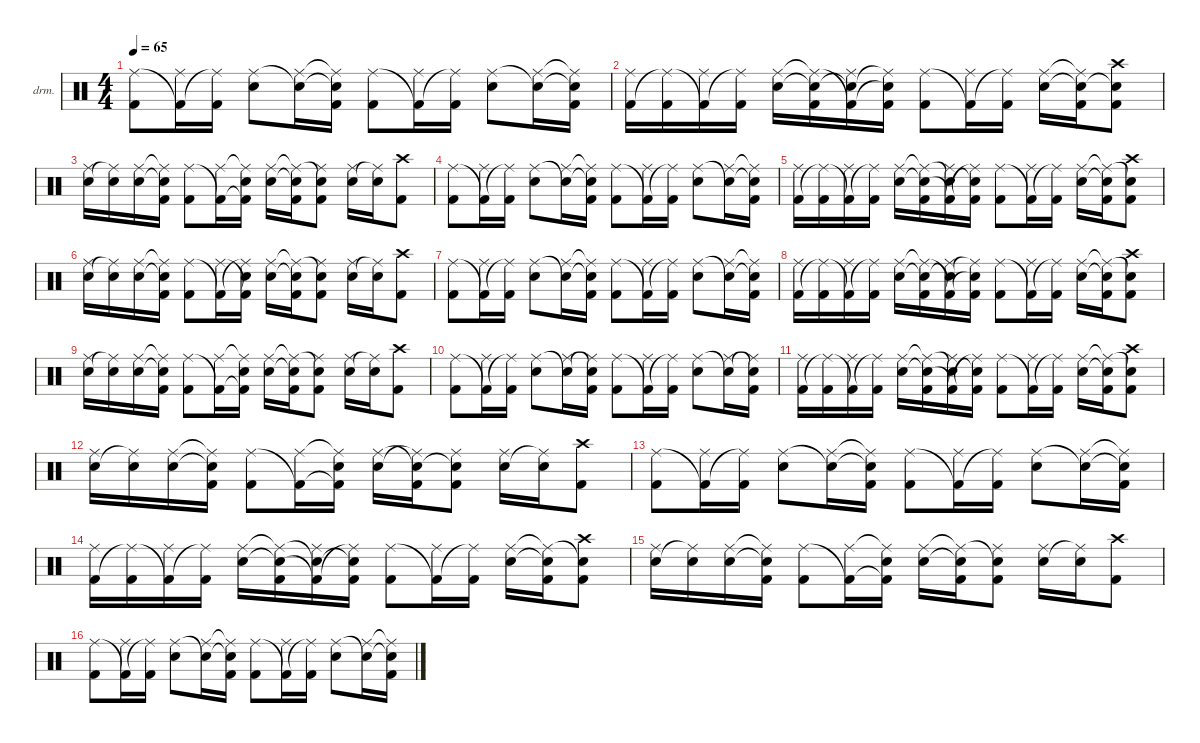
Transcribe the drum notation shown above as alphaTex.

\hideDynamics
\bracketExtendMode nobrackets
\firstSystemTrackNameOrientation horizontal
\otherSystemsTrackNameOrientation horizontal
\track ("Drums" "drm.") {instrument percussion}
\staff {score}
\articulation defaults
\ts (4 4)
\tempo 65
\clef neutral
\ks aminor
("Ride (middle)"{acc #} "Kick (hit) 2").8{dy ff beam Down} ("Kick (hit) 2"{t} "Ride (middle)"{acc #}).16{beam Down} ("Ride (middle)"{t acc #} "Kick (hit) 2").16{beam Down} ("Ride (middle)"{acc #} "Snare (hit) 2").8{beam Down} ("Snare (hit) 2"{t} "Ride (middle)"{acc #}).16{beam Down} ("Snare (hit) 2"{t} "Ride (middle)"{t acc #} "Kick (hit) 2").16{beam Down} ("Ride (middle)"{acc #} "Kick (hit) 2").8{beam Down} ("Kick (hit) 2"{t} "Ride (middle)"{acc #}).16{beam Down} ("Ride (middle)"{t acc #} "Kick (hit) 2").16{beam Down} ("Ride (middle)"{acc #} "Snare (hit) 2").8{beam Down} ("Snare (hit) 2"{t} "Ride (middle)"{acc #}).16{beam Down} ("Snare (hit) 2"{t} "Ride (middle)"{t acc #} "Kick (hit) 2").16{beam Down} |
("Kick (hit) 2" "Ride (middle)"{acc #}).16{beam Down} ("Ride (middle)"{t acc #} "Kick (hit) 2").16{beam Down} ("Kick (hit) 2"{t} "Ride (middle)"{acc #}).16{beam Down} ("Ride (middle)"{t acc #} "Kick (hit) 2").16{beam Down} ("Ride (middle)"{acc #} "Snare (hit) 2").16{beam Down} ("Ride (middle)"{t acc #} "Snare (hit) 2"{t} "Kick (hit) 2").16{beam Down} ("Kick (hit) 2"{t} "Snare (hit) 2"{t} "Ride (middle)"{acc #}).16{beam Down} ("Snare (hit) 2"{t} "Ride (middle)"{t acc #} "Kick (hit) 2").16{beam Down} ("Ride (middle)"{acc #} "Kick (hit) 2").8{beam Down} ("Kick (hit) 2"{t} "Ride (middle)"{acc #}).16{beam Down} ("Ride (middle)"{t acc #} "Kick (hit) 2").16{beam Down} ("Ride (middle)"{acc #} "Snare (hit) 2").16{beam Down} ("Ride (middle)"{t acc #} "Snare (hit) 2"{t} "Kick (hit) 2").16{beam Down} ("Kick (hit) 2" "Snare (hit) 2"{t} "Crash high (hit)"{acc #}).8{beam Down} |
("Snare (hit) 2" "Ride (middle)"{acc #}).16{beam Down} ("Ride (middle)"{t acc #} "Snare (hit) 2").16{beam Down} ("Snare (hit) 2" "Ride (middle)"{acc #}).16{beam Down} ("Snare (hit) 2"{t} "Ride (middle)"{t acc #} "Kick (hit) 2").16{beam Down} ("Ride (middle)"{acc #} "Kick (hit) 2").8{beam Down} ("Kick (hit) 2"{t} "Ride (middle)"{acc #}).16{beam Down} ("Kick (hit) 2"{t} "Ride (middle)"{t acc #} "Snare (hit) 2").16{beam Down} ("Ride (middle)"{acc #} "Snare (hit) 2").16{beam Down} ("Ride (middle)"{t acc #} "Snare (hit) 2"{t} "Kick (hit) 2").16{beam Down} ("Snare (hit) 2"{t} "Kick (hit) 2" "Ride (middle)"{acc #}).8{beam Down} ("Snare (hit) 2" "Ride (middle)"{acc #}).16{beam Down} ("Ride (middle)"{t acc #} "Snare (hit) 2").16{beam Down} ("Kick (hit) 2" "Crash high (hit)"{acc #}).8{beam Down} |
("Ride (middle)"{acc #} "Kick (hit) 2").8{beam Down} ("Kick (hit) 2"{t} "Ride (middle)"{acc #}).16{beam Down} ("Ride (middle)"{t acc #} "Kick (hit) 2").16{beam Down} ("Ride (middle)"{acc #} "Snare (hit) 2").8{beam Down} ("Snare (hit) 2"{t} "Ride (middle)"{acc #}).16{beam Down} ("Snare (hit) 2"{t} "Ride (middle)"{t acc #} "Kick (hit) 2").16{beam Down} ("Ride (middle)"{acc #} "Kick (hit) 2").8{beam Down} ("Kick (hit) 2"{t} "Ride (middle)"{acc #}).16{beam Down} ("Ride (middle)"{t acc #} "Kick (hit) 2").16{beam Down} ("Ride (middle)"{acc #} "Snare (hit) 2").8{beam Down} ("Snare (hit) 2"{t} "Ride (middle)"{acc #}).16{beam Down} ("Snare (hit) 2"{t} "Ride (middle)"{t acc #} "Kick (hit) 2").16{beam Down} |
("Kick (hit) 2" "Ride (middle)"{acc #}).16{beam Down} ("Ride (middle)"{t acc #} "Kick (hit) 2").16{beam Down} ("Kick (hit) 2"{t} "Ride (middle)"{acc #}).16{beam Down} ("Ride (middle)"{t acc #} "Kick (hit) 2").16{beam Down} ("Ride (middle)"{acc #} "Snare (hit) 2").16{beam Down} ("Ride (middle)"{t acc #} "Snare (hit) 2"{t} "Kick (hit) 2").16{beam Down} ("Snare (hit) 2"{t} "Kick (hit) 2"{t} "Ride (middle)"{acc #}).16{beam Down} ("Snare (hit) 2"{t} "Ride (middle)"{t acc #} "Kick (hit) 2").16{beam Down} ("Ride (middle)"{acc #} "Kick (hit) 2").8{beam Down} ("Kick (hit) 2"{t} "Ride (middle)"{acc #}).16{beam Down} ("Ride (middle)"{t acc #} "Kick (hit) 2").16{beam Down} ("Ride (middle)"{acc #} "Snare (hit) 2").16{beam Down} ("Ride (middle)"{t acc #} "Snare (hit) 2"{t} "Kick (hit) 2").16{beam Down} ("Snare (hit) 2"{t} "Kick (hit) 2" "Crash high (hit)"{acc #}).8{beam Down} |
("Snare (hit) 2" "Ride (middle)"{acc #}).16{beam Down} ("Ride (middle)"{t acc #} "Snare (hit) 2").16{beam Down} ("Snare (hit) 2" "Ride (middle)"{acc #}).16{beam Down} ("Snare (hit) 2"{t} "Ride (middle)"{t acc #} "Kick (hit) 2").16{beam Down} ("Ride (middle)"{acc #} "Kick (hit) 2").8{beam Down} ("Kick (hit) 2"{t} "Ride (middle)"{acc #}).16{beam Down} ("Ride (middle)"{t acc #} "Kick (hit) 2"{t} "Snare (hit) 2").16{beam Down} ("Ride (middle)"{acc #} "Snare (hit) 2").16{beam Down} ("Ride (middle)"{t acc #} "Snare (hit) 2"{t} "Kick (hit) 2").16{beam Down} ("Snare (hit) 2"{t} "Kick (hit) 2" "Ride (middle)"{acc #}).8{beam Down} ("Snare (hit) 2" "Ride (middle)"{acc #}).16{beam Down} ("Ride (middle)"{t acc #} "Snare (hit) 2").16{beam Down} ("Kick (hit) 2" "Crash high (hit)"{acc #}).8{beam Down} |
("Ride (middle)"{acc #} "Kick (hit) 2").8{beam Down} ("Kick (hit) 2"{t} "Ride (middle)"{acc #}).16{beam Down} ("Ride (middle)"{t acc #} "Kick (hit) 2").16{beam Down} ("Ride (middle)"{acc #} "Snare (hit) 2").8{beam Down} ("Snare (hit) 2"{t} "Ride (middle)"{acc #}).16{beam Down} ("Snare (hit) 2"{t} "Ride (middle)"{t acc #} "Kick (hit) 2").16{beam Down} ("Ride (middle)"{acc #} "Kick (hit) 2").8{beam Down} ("Kick (hit) 2"{t} "Ride (middle)"{acc #}).16{beam Down} ("Ride (middle)"{t acc #} "Kick (hit) 2").16{beam Down} ("Ride (middle)"{acc #} "Snare (hit) 2").8{beam Down} ("Snare (hit) 2"{t} "Ride (middle)"{acc #}).16{beam Down} ("Snare (hit) 2"{t} "Ride (middle)"{t acc #} "Kick (hit) 2").16{beam Down} |
("Kick (hit) 2" "Ride (middle)"{acc #}).16{beam Down} ("Ride (middle)"{t acc #} "Kick (hit) 2").16{beam Down} ("Kick (hit) 2"{t} "Ride (middle)"{acc #}).16{beam Down} ("Ride (middle)"{t acc #} "Kick (hit) 2").16{beam Down} ("Ride (middle)"{acc #} "Snare (hit) 2").16{beam Down} ("Ride (middle)"{t acc #} "Snare (hit) 2"{t} "Kick (hit) 2").16{beam Down} ("Kick (hit) 2"{t} "Snare (hit) 2"{t} "Ride (middle)"{acc #}).16{beam Down} ("Snare (hit) 2"{t} "Ride (middle)"{t acc #} "Kick (hit) 2").16{beam Down} ("Ride (middle)"{acc #} "Kick (hit) 2").8{beam Down} ("Kick (hit) 2"{t} "Ride (middle)"{acc #}).16{beam Down} ("Ride (middle)"{t acc #} "Kick (hit) 2").16{beam Down} ("Ride (middle)"{acc #} "Snare (hit) 2").16{beam Down} ("Ride (middle)"{t acc #} "Snare (hit) 2"{t} "Kick (hit) 2").16{beam Down} ("Snare (hit) 2"{t} "Kick (hit) 2" "Crash high (hit)"{acc #}).8{beam Down} |
("Snare (hit) 2" "Ride (middle)"{acc #}).16{beam Down} ("Ride (middle)"{t acc #} "Snare (hit) 2").16{beam Down} ("Snare (hit) 2" "Ride (middle)"{acc #}).16{beam Down} ("Snare (hit) 2"{t} "Ride (middle)"{t acc #} "Kick (hit) 2").16{beam Down} ("Ride (middle)"{acc #} "Kick (hit) 2").8{beam Down} ("Kick (hit) 2"{t} "Ride (middle)"{acc #}).16{beam Down} ("Kick (hit) 2"{t} "Ride (middle)"{t acc #} "Snare (hit) 2").16{beam Down} ("Ride (middle)"{acc #} "Snare (hit) 2").16{beam Down} ("Ride (middle)"{t acc #} "Snare (hit) 2"{t} "Kick (hit) 2").16{beam Down} ("Snare (hit) 2"{t} "Kick (hit) 2" "Ride (middle)"{acc #}).8{beam Down} ("Snare (hit) 2" "Ride (middle)"{acc #}).16{beam Down} ("Ride (middle)"{t acc #} "Snare (hit) 2").16{beam Down} ("Kick (hit) 2" "Crash high (hit)"{acc #}).8{beam Down} |
("Ride (middle)"{acc #} "Kick (hit) 2").8{beam Down} ("Kick (hit) 2"{t} "Ride (middle)"{acc #}).16{beam Down} ("Ride (middle)"{t acc #} "Kick (hit) 2").16{beam Down} ("Ride (middle)"{acc #} "Snare (hit) 2").8{beam Down} ("Snare (hit) 2"{t} "Ride (middle)"{acc #}).16{beam Down} ("Ride (middle)"{t acc #} "Snare (hit) 2"{t} "Kick (hit) 2").16{beam Down} ("Ride (middle)"{acc #} "Kick (hit) 2").8{beam Down} ("Kick (hit) 2"{t} "Ride (middle)"{acc #}).16{beam Down} ("Ride (middle)"{t acc #} "Kick (hit) 2").16{beam Down} ("Ride (middle)"{acc #} "Snare (hit) 2").8{beam Down} ("Snare (hit) 2"{t} "Ride (middle)"{acc #}).16{beam Down} ("Ride (middle)"{t acc #} "Snare (hit) 2"{t} "Kick (hit) 2").16{beam Down} |
("Kick (hit) 2" "Ride (middle)"{acc #}).16{beam Down} ("Ride (middle)"{t acc #} "Kick (hit) 2").16{beam Down} ("Kick (hit) 2"{t} "Ride (middle)"{acc #}).16{beam Down} ("Ride (middle)"{t acc #} "Kick (hit) 2").16{beam Down} ("Ride (middle)"{acc #} "Snare (hit) 2").16{beam Down} ("Ride (middle)"{t acc #} "Snare (hit) 2"{t} "Kick (hit) 2").16{beam Down} ("Snare (hit) 2"{t} "Kick (hit) 2"{t} "Ride (middle)"{acc #}).16{beam Down} ("Snare (hit) 2"{t} "Ride (middle)"{t acc #} "Kick (hit) 2").16{beam Down} ("Ride (middle)"{acc #} "Kick (hit) 2").8{beam Down} ("Kick (hit) 2"{t} "Ride (middle)"{acc #}).16{beam Down} ("Ride (middle)"{t acc #} "Kick (hit) 2").16{beam Down} ("Ride (middle)"{acc #} "Snare (hit) 2").16{beam Down} ("Ride (middle)"{t acc #} "Snare (hit) 2"{t} "Kick (hit) 2").16{beam Down} ("Snare (hit) 2"{t} "Kick (hit) 2" "Crash high (hit)"{acc #}).8{beam Down} |
("Snare (hit) 2" "Ride (middle)"{acc #}).16{beam Down} ("Ride (middle)"{t acc #} "Snare (hit) 2").16{beam Down} ("Snare (hit) 2" "Ride (middle)"{acc #}).16{beam Down} ("Snare (hit) 2"{t} "Ride (middle)"{t acc #} "Kick (hit) 2").16{beam Down} ("Ride (middle)"{acc #} "Kick (hit) 2").8{beam Down} ("Kick (hit) 2"{t} "Ride (middle)"{acc #}).16{beam Down} ("Kick (hit) 2"{t} "Ride (middle)"{t acc #} "Snare (hit) 2").16{beam Down} ("Ride (middle)"{acc #} "Snare (hit) 2").16{beam Down} ("Snare (hit) 2"{t} "Ride (middle)"{t acc #} "Kick (hit) 2").16{beam Down} ("Snare (hit) 2"{t} "Kick (hit) 2" "Ride (middle)"{acc #}).8{beam Down} ("Snare (hit) 2" "Ride (middle)"{acc #}).16{beam Down} ("Ride (middle)"{t acc #} "Snare (hit) 2").16{beam Down} ("Kick (hit) 2" "Crash high (hit)"{acc #}).8{beam Down} |
("Ride (middle)"{acc #} "Kick (hit) 2").8{beam Down} ("Kick (hit) 2"{t} "Ride (middle)"{acc #}).16{beam Down} ("Ride (middle)"{t acc #} "Kick (hit) 2").16{beam Down} ("Ride (middle)"{acc #} "Snare (hit) 2").8{beam Down} ("Snare (hit) 2"{t} "Ride (middle)"{acc #}).16{beam Down} ("Snare (hit) 2"{t} "Ride (middle)"{t acc #} "Kick (hit) 2").16{beam Down} ("Ride (middle)"{acc #} "Kick (hit) 2").8{beam Down} ("Kick (hit) 2"{t} "Ride (middle)"{acc #}).16{beam Down} ("Ride (middle)"{t acc #} "Kick (hit) 2").16{beam Down} ("Ride (middle)"{acc #} "Snare (hit) 2").8{beam Down} ("Snare (hit) 2"{t} "Ride (middle)"{acc #}).16{beam Down} ("Snare (hit) 2"{t} "Ride (middle)"{t acc #} "Kick (hit) 2").16{beam Down} |
("Kick (hit) 2" "Ride (middle)"{acc #}).16{beam Down} ("Ride (middle)"{t acc #} "Kick (hit) 2").16{beam Down} ("Kick (hit) 2"{t} "Ride (middle)"{acc #}).16{beam Down} ("Ride (middle)"{t acc #} "Kick (hit) 2").16{beam Down} ("Ride (middle)"{acc #} "Snare (hit) 2").16{beam Down} ("Ride (middle)"{t acc #} "Snare (hit) 2"{t} "Kick (hit) 2").16{beam Down} ("Snare (hit) 2"{t} "Kick (hit) 2"{t} "Ride (middle)"{acc #}).16{beam Down} ("Snare (hit) 2"{t} "Ride (middle)"{t acc #} "Kick (hit) 2").16{beam Down} ("Ride (middle)"{acc #} "Kick (hit) 2").8{beam Down} ("Kick (hit) 2"{t} "Ride (middle)"{acc #}).16{beam Down} ("Ride (middle)"{t acc #} "Kick (hit) 2").16{beam Down} ("Ride (middle)"{acc #} "Snare (hit) 2").16{beam Down} ("Ride (middle)"{t acc #} "Snare (hit) 2"{t} "Kick (hit) 2").16{beam Down} ("Snare (hit) 2"{t} "Kick (hit) 2" "Crash high (hit)"{acc #}).8{beam Down} |
("Snare (hit) 2" "Ride (middle)"{acc #}).16{beam Down} ("Ride (middle)"{t acc #} "Snare (hit) 2").16{beam Down} ("Snare (hit) 2" "Ride (middle)"{acc #}).16{beam Down} ("Snare (hit) 2"{t} "Ride (middle)"{t acc #} "Kick (hit) 2").16{beam Down} ("Ride (middle)"{acc #} "Kick (hit) 2").8{beam Down} ("Kick (hit) 2"{t} "Ride (middle)"{acc #}).16{beam Down} ("Kick (hit) 2"{t} "Ride (middle)"{t acc #} "Snare (hit) 2").16{beam Down} ("Ride (middle)"{acc #} "Snare (hit) 2").16{beam Down} ("Ride (middle)"{t acc #} "Snare (hit) 2"{t} "Kick (hit) 2").16{beam Down} ("Snare (hit) 2"{t} "Kick (hit) 2" "Ride (middle)"{acc #}).8{beam Down} ("Snare (hit) 2" "Ride (middle)"{acc #}).16{beam Down} ("Ride (middle)"{t acc #} "Snare (hit) 2").16{beam Down} ("Kick (hit) 2" "Crash high (hit)"{acc #}).8{beam Down} |
("Ride (middle)"{acc #} "Kick (hit) 2").8{beam Down} ("Kick (hit) 2"{t} "Ride (middle)"{acc #}).16{beam Down} ("Ride (middle)"{t acc #} "Kick (hit) 2").16{beam Down} ("Ride (middle)"{acc #} "Snare (hit) 2").8{beam Down} ("Snare (hit) 2"{t} "Ride (middle)"{acc #}).16{beam Down} ("Snare (hit) 2"{t} "Ride (middle)"{t acc #} "Kick (hit) 2").16{beam Down} ("Ride (middle)"{acc #} "Kick (hit) 2").8{beam Down} ("Kick (hit) 2"{t} "Ride (middle)"{acc #}).16{beam Down} ("Ride (middle)"{t acc #} "Kick (hit) 2").16{beam Down} ("Ride (middle)"{acc #} "Snare (hit) 2").8{beam Down} ("Snare (hit) 2"{t} "Ride (middle)"{acc #}).16{beam Down} ("Snare (hit) 2"{t} "Ride (middle)"{t acc #} "Kick (hit) 2").16{beam Down}
